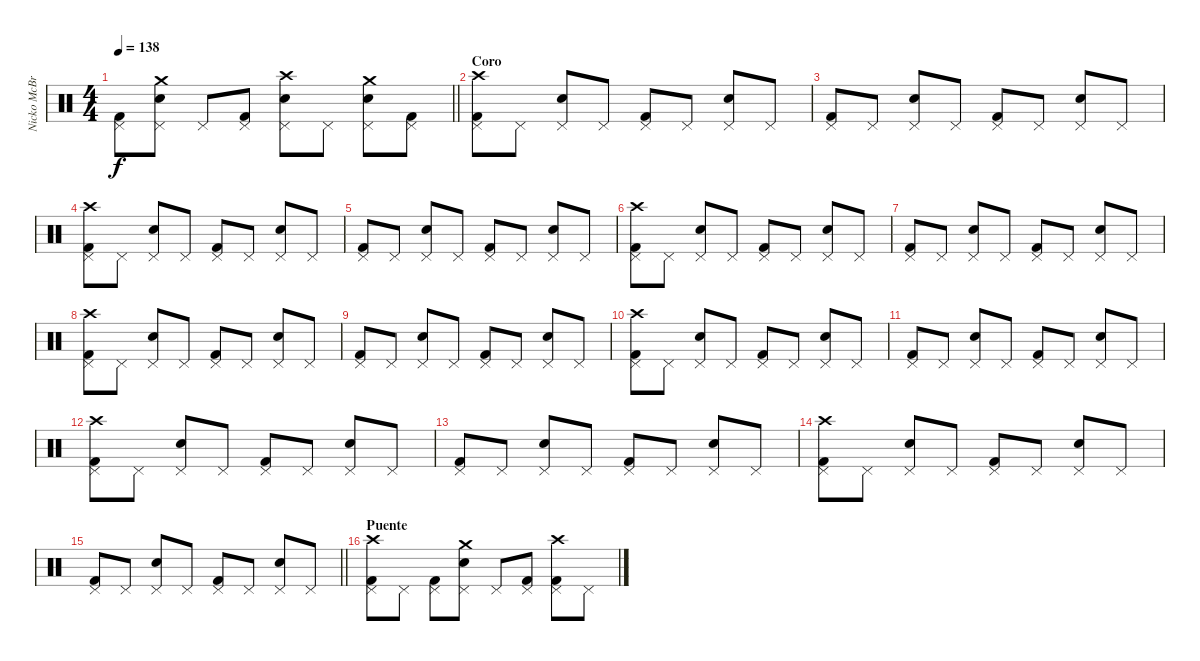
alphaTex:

\track ("Nicko McBrain" "Nicko McBr") {instrument percussion}
\staff {score}
\articulation defaults
\ts (4 4)
\tempo 138
\clef neutral
\barLineRight lightlight
\ks c
("Kick (hit) 2" "Pedal Hi-Hat (hit)").8{dy f} ("Snare (hit) 2" "Pedal Hi-Hat (hit)" "Crash medium (hit)").8 "Pedal Hi-Hat (hit)".8 ("Kick (hit) 2" "Pedal Hi-Hat (hit)").8 ("Snare (hit) 2" "Pedal Hi-Hat (hit)" "Crash high (hit)").8 "Pedal Hi-Hat (hit)".8 ("Snare (hit) 2" "Pedal Hi-Hat (hit)" "Crash medium (hit)").8 ("Kick (hit) 2" "Pedal Hi-Hat (hit)").8 |
\section ("" "Coro")
("Kick (hit) 2" "Pedal Hi-Hat (hit)" "Crash high (hit)").8 "Pedal Hi-Hat (hit)".8 ("Snare (hit) 2" "Pedal Hi-Hat (hit)").8 "Pedal Hi-Hat (hit)".8 ("Kick (hit) 2" "Pedal Hi-Hat (hit)").8 "Pedal Hi-Hat (hit)".8 ("Snare (hit) 2" "Pedal Hi-Hat (hit)").8 "Pedal Hi-Hat (hit)".8 |
("Kick (hit) 2" "Pedal Hi-Hat (hit)").8 "Pedal Hi-Hat (hit)".8 ("Snare (hit) 2" "Pedal Hi-Hat (hit)").8 "Pedal Hi-Hat (hit)".8 ("Kick (hit) 2" "Pedal Hi-Hat (hit)").8 "Pedal Hi-Hat (hit)".8 ("Snare (hit) 2" "Pedal Hi-Hat (hit)").8 "Pedal Hi-Hat (hit)".8 |
("Kick (hit) 2" "Pedal Hi-Hat (hit)" "Crash high (hit)").8 "Pedal Hi-Hat (hit)".8 ("Snare (hit) 2" "Pedal Hi-Hat (hit)").8 "Pedal Hi-Hat (hit)".8 ("Kick (hit) 2" "Pedal Hi-Hat (hit)").8 "Pedal Hi-Hat (hit)".8 ("Snare (hit) 2" "Pedal Hi-Hat (hit)").8 "Pedal Hi-Hat (hit)".8 |
("Kick (hit) 2" "Pedal Hi-Hat (hit)").8 "Pedal Hi-Hat (hit)".8 ("Snare (hit) 2" "Pedal Hi-Hat (hit)").8 "Pedal Hi-Hat (hit)".8 ("Kick (hit) 2" "Pedal Hi-Hat (hit)").8 "Pedal Hi-Hat (hit)".8 ("Snare (hit) 2" "Pedal Hi-Hat (hit)").8 "Pedal Hi-Hat (hit)".8 |
("Kick (hit) 2" "Pedal Hi-Hat (hit)" "Crash high (hit)").8 "Pedal Hi-Hat (hit)".8 ("Snare (hit) 2" "Pedal Hi-Hat (hit)").8 "Pedal Hi-Hat (hit)".8 ("Kick (hit) 2" "Pedal Hi-Hat (hit)").8 "Pedal Hi-Hat (hit)".8 ("Snare (hit) 2" "Pedal Hi-Hat (hit)").8 "Pedal Hi-Hat (hit)".8 |
("Kick (hit) 2" "Pedal Hi-Hat (hit)").8 "Pedal Hi-Hat (hit)".8 ("Snare (hit) 2" "Pedal Hi-Hat (hit)").8 "Pedal Hi-Hat (hit)".8 ("Kick (hit) 2" "Pedal Hi-Hat (hit)").8 "Pedal Hi-Hat (hit)".8 ("Snare (hit) 2" "Pedal Hi-Hat (hit)").8 "Pedal Hi-Hat (hit)".8 |
("Kick (hit) 2" "Pedal Hi-Hat (hit)" "Crash high (hit)").8 "Pedal Hi-Hat (hit)".8 ("Snare (hit) 2" "Pedal Hi-Hat (hit)").8 "Pedal Hi-Hat (hit)".8 ("Kick (hit) 2" "Pedal Hi-Hat (hit)").8 "Pedal Hi-Hat (hit)".8 ("Snare (hit) 2" "Pedal Hi-Hat (hit)").8 "Pedal Hi-Hat (hit)".8 |
("Kick (hit) 2" "Pedal Hi-Hat (hit)").8 "Pedal Hi-Hat (hit)".8 ("Snare (hit) 2" "Pedal Hi-Hat (hit)").8 "Pedal Hi-Hat (hit)".8 ("Kick (hit) 2" "Pedal Hi-Hat (hit)").8 "Pedal Hi-Hat (hit)".8 ("Snare (hit) 2" "Pedal Hi-Hat (hit)").8 "Pedal Hi-Hat (hit)".8 |
("Kick (hit) 2" "Pedal Hi-Hat (hit)" "Crash high (hit)").8 "Pedal Hi-Hat (hit)".8 ("Snare (hit) 2" "Pedal Hi-Hat (hit)").8 "Pedal Hi-Hat (hit)".8 ("Kick (hit) 2" "Pedal Hi-Hat (hit)").8 "Pedal Hi-Hat (hit)".8 ("Snare (hit) 2" "Pedal Hi-Hat (hit)").8 "Pedal Hi-Hat (hit)".8 |
("Kick (hit) 2" "Pedal Hi-Hat (hit)").8 "Pedal Hi-Hat (hit)".8 ("Snare (hit) 2" "Pedal Hi-Hat (hit)").8 "Pedal Hi-Hat (hit)".8 ("Kick (hit) 2" "Pedal Hi-Hat (hit)").8 "Pedal Hi-Hat (hit)".8 ("Snare (hit) 2" "Pedal Hi-Hat (hit)").8 "Pedal Hi-Hat (hit)".8 |
("Kick (hit) 2" "Pedal Hi-Hat (hit)" "Crash high (hit)").8 "Pedal Hi-Hat (hit)".8 ("Snare (hit) 2" "Pedal Hi-Hat (hit)").8 "Pedal Hi-Hat (hit)".8 ("Kick (hit) 2" "Pedal Hi-Hat (hit)").8 "Pedal Hi-Hat (hit)".8 ("Snare (hit) 2" "Pedal Hi-Hat (hit)").8 "Pedal Hi-Hat (hit)".8 |
("Kick (hit) 2" "Pedal Hi-Hat (hit)").8 "Pedal Hi-Hat (hit)".8 ("Snare (hit) 2" "Pedal Hi-Hat (hit)").8 "Pedal Hi-Hat (hit)".8 ("Kick (hit) 2" "Pedal Hi-Hat (hit)").8 "Pedal Hi-Hat (hit)".8 ("Snare (hit) 2" "Pedal Hi-Hat (hit)").8 "Pedal Hi-Hat (hit)".8 |
("Kick (hit) 2" "Pedal Hi-Hat (hit)" "Crash high (hit)").8 "Pedal Hi-Hat (hit)".8 ("Snare (hit) 2" "Pedal Hi-Hat (hit)").8 "Pedal Hi-Hat (hit)".8 ("Kick (hit) 2" "Pedal Hi-Hat (hit)").8 "Pedal Hi-Hat (hit)".8 ("Snare (hit) 2" "Pedal Hi-Hat (hit)").8 "Pedal Hi-Hat (hit)".8 |
\barLineRight lightlight
("Kick (hit) 2" "Pedal Hi-Hat (hit)").8 "Pedal Hi-Hat (hit)".8 ("Snare (hit) 2" "Pedal Hi-Hat (hit)").8 "Pedal Hi-Hat (hit)".8 ("Kick (hit) 2" "Pedal Hi-Hat (hit)").8 "Pedal Hi-Hat (hit)".8 ("Snare (hit) 2" "Pedal Hi-Hat (hit)").8 "Pedal Hi-Hat (hit)".8 |
\section ("" "Puente")
("Kick (hit) 2" "Pedal Hi-Hat (hit)" "Crash high (hit)").8 "Pedal Hi-Hat (hit)".8 ("Kick (hit) 2" "Pedal Hi-Hat (hit)").8 ("Snare (hit) 2" "Pedal Hi-Hat (hit)" "Crash medium (hit)").8 "Pedal Hi-Hat (hit)".8 ("Kick (hit) 2" "Pedal Hi-Hat (hit)").8 ("Kick (hit) 2" "Pedal Hi-Hat (hit)" "Crash high (hit)").8 "Pedal Hi-Hat (hit)".8
